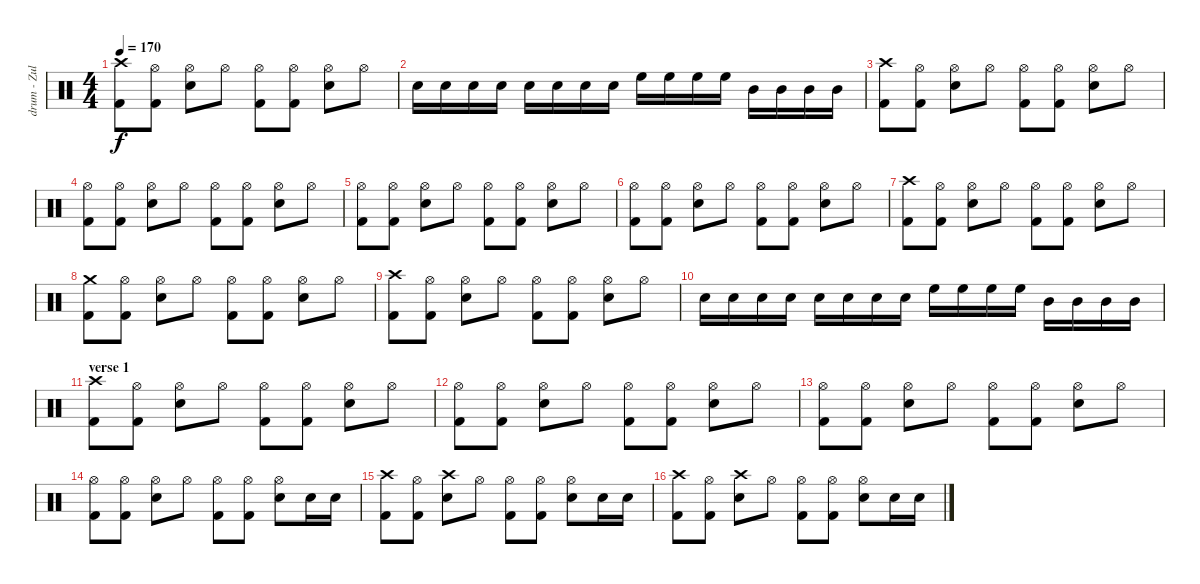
\track ("drum - Zul ???" "drum - Zul") {instrument percussion}
\staff {score}
\articulation defaults
\ts (4 4)
\tempo 170
\clef neutral
\ks c
("Crash high (hit)" "Kick (hit) 2").8{dy f} ("Hi-Hat (open)" "Kick (hit) 2").8 ("Hi-Hat (open)" "Snare (hit) 2").8 "Hi-Hat (open)".8 ("Hi-Hat (open)" "Kick (hit) 2").8 ("Hi-Hat (open)" "Kick (hit) 2").8 ("Hi-Hat (open)" "Snare (hit) 2").8 "Hi-Hat (open)".8 |
"Snare (hit) 2".16 "Snare (hit) 2".16 "Snare (hit) 2".16 "Snare (hit) 2".16 "Snare (hit) 2".16 "Snare (hit) 2".16 "Snare (hit) 2".16 "Snare (hit) 2".16 "High Floor Tom (hit)".16 "High Floor Tom (hit)".16 "High Floor Tom (hit)".16 "High Floor Tom (hit)".16 "Mid Tom (hit)".16 "Mid Tom (hit)".16 "Mid Tom (hit)".16 "Mid Tom (hit)".16 |
("Crash high (hit)" "Kick (hit) 2").8 ("Hi-Hat (open)" "Kick (hit) 2").8 ("Hi-Hat (open)" "Snare (hit) 2").8 "Hi-Hat (open)".8 ("Hi-Hat (open)" "Kick (hit) 2").8 ("Hi-Hat (open)" "Kick (hit) 2").8 ("Hi-Hat (open)" "Snare (hit) 2").8 "Hi-Hat (open)".8 |
("Hi-Hat (open)" "Kick (hit) 2").8 ("Hi-Hat (open)" "Kick (hit) 2").8 ("Hi-Hat (open)" "Snare (hit) 2").8 "Hi-Hat (open)".8 ("Hi-Hat (open)" "Kick (hit) 2").8 ("Hi-Hat (open)" "Kick (hit) 2").8 ("Hi-Hat (open)" "Snare (hit) 2").8 "Hi-Hat (open)".8 |
("Hi-Hat (open)" "Kick (hit) 2").8 ("Hi-Hat (open)" "Kick (hit) 2").8 ("Hi-Hat (open)" "Snare (hit) 2").8 "Hi-Hat (open)".8 ("Hi-Hat (open)" "Kick (hit) 2").8 ("Hi-Hat (open)" "Kick (hit) 2").8 ("Hi-Hat (open)" "Snare (hit) 2").8 "Hi-Hat (open)".8 |
("Hi-Hat (open)" "Kick (hit) 2").8 ("Hi-Hat (open)" "Kick (hit) 2").8 ("Hi-Hat (open)" "Snare (hit) 2").8 "Hi-Hat (open)".8 ("Hi-Hat (open)" "Kick (hit) 2").8 ("Hi-Hat (open)" "Kick (hit) 2").8 ("Hi-Hat (open)" "Snare (hit) 2").8 "Hi-Hat (open)".8 |
("Crash high (hit)" "Kick (hit) 2").8 ("Hi-Hat (open)" "Kick (hit) 2").8 ("Hi-Hat (open)" "Snare (hit) 2").8 "Hi-Hat (open)".8 ("Hi-Hat (open)" "Kick (hit) 2").8 ("Hi-Hat (open)" "Kick (hit) 2").8 ("Hi-Hat (open)" "Snare (hit) 2").8 "Hi-Hat (open)".8 |
("Crash medium (hit)" "Kick (hit) 2").8 ("Hi-Hat (open)" "Kick (hit) 2").8 ("Hi-Hat (open)" "Snare (hit) 2").8 "Hi-Hat (open)".8 ("Hi-Hat (open)" "Kick (hit) 2").8 ("Hi-Hat (open)" "Kick (hit) 2").8 ("Hi-Hat (open)" "Snare (hit) 2").8 "Hi-Hat (open)".8 |
("Crash high (hit)" "Kick (hit) 2").8 ("Hi-Hat (open)" "Kick (hit) 2").8 ("Hi-Hat (open)" "Snare (hit) 2").8 "Hi-Hat (open)".8 ("Hi-Hat (open)" "Kick (hit) 2").8 ("Hi-Hat (open)" "Kick (hit) 2").8 ("Hi-Hat (open)" "Snare (hit) 2").8 "Hi-Hat (open)".8 |
"Snare (hit) 2".16 "Snare (hit) 2".16 "Snare (hit) 2".16 "Snare (hit) 2".16 "Snare (hit) 2".16 "Snare (hit) 2".16 "Snare (hit) 2".16 "Snare (hit) 2".16 "High Floor Tom (hit)".16 "High Floor Tom (hit)".16 "High Floor Tom (hit)".16 "High Floor Tom (hit)".16 "Mid Tom (hit)".16 "Mid Tom (hit)".16 "Mid Tom (hit)".16 "Mid Tom (hit)".16 |
\section ("" "verse 1")
("Crash high (hit)" "Kick (hit) 2").8 ("Hi-Hat (open)" "Kick (hit) 2").8 ("Hi-Hat (open)" "Snare (hit) 2").8 "Hi-Hat (open)".8 ("Hi-Hat (open)" "Kick (hit) 2").8 ("Hi-Hat (open)" "Kick (hit) 2").8 ("Hi-Hat (open)" "Snare (hit) 2").8 "Hi-Hat (open)".8 |
("Hi-Hat (open)" "Kick (hit) 2").8 ("Hi-Hat (open)" "Kick (hit) 2").8 ("Hi-Hat (open)" "Snare (hit) 2").8 "Hi-Hat (open)".8 ("Hi-Hat (open)" "Kick (hit) 2").8 ("Hi-Hat (open)" "Kick (hit) 2").8 ("Hi-Hat (open)" "Snare (hit) 2").8 "Hi-Hat (open)".8 |
("Hi-Hat (open)" "Kick (hit) 2").8 ("Hi-Hat (open)" "Kick (hit) 2").8 ("Hi-Hat (open)" "Snare (hit) 2").8 "Hi-Hat (open)".8 ("Hi-Hat (open)" "Kick (hit) 2").8 ("Hi-Hat (open)" "Kick (hit) 2").8 ("Hi-Hat (open)" "Snare (hit) 2").8 "Hi-Hat (open)".8 |
("Hi-Hat (open)" "Kick (hit) 2").8 ("Hi-Hat (open)" "Kick (hit) 2").8 ("Hi-Hat (open)" "Snare (hit) 2").8 "Hi-Hat (open)".8 ("Hi-Hat (open)" "Kick (hit) 2").8 ("Hi-Hat (open)" "Kick (hit) 2").8 ("Hi-Hat (open)" "Snare (hit) 2").8 "Snare (hit) 2".16 "Snare (hit) 2".16 |
("Crash high (hit)" "Kick (hit) 2").8 ("Hi-Hat (open)" "Kick (hit) 2").8 ("Crash high (hit)" "Snare (hit) 2").8 "Hi-Hat (open)".8 ("Hi-Hat (open)" "Kick (hit) 2").8 ("Hi-Hat (open)" "Kick (hit) 2").8 ("Hi-Hat (open)" "Snare (hit) 2").8 "Snare (hit) 2".16 "Snare (hit) 2".16 |
("Crash high (hit)" "Kick (hit) 2").8 ("Hi-Hat (open)" "Kick (hit) 2").8 ("Crash high (hit)" "Snare (hit) 2").8 "Hi-Hat (open)".8 ("Hi-Hat (open)" "Kick (hit) 2").8 ("Hi-Hat (open)" "Kick (hit) 2").8 ("Hi-Hat (open)" "Snare (hit) 2").8 "Snare (hit) 2".16 "Snare (hit) 2".16
